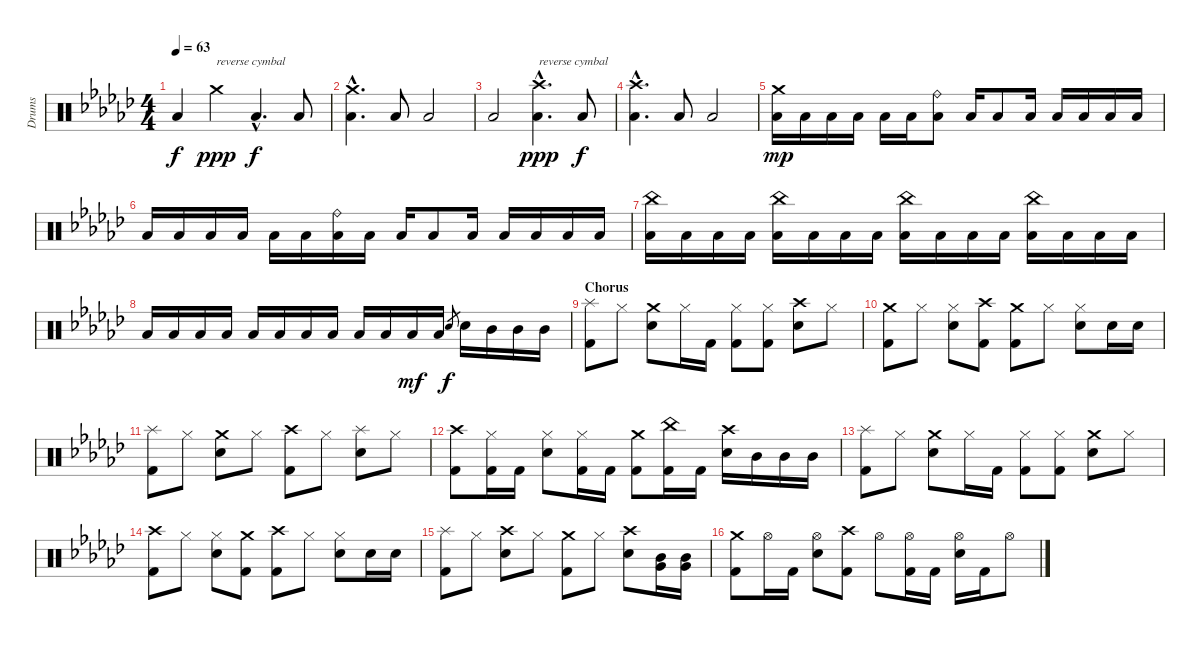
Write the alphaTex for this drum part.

\track ("Drums" "Drums") {instrument percussion}
\staff {score}
\articulation defaults
\ts (4 4)
\tempo 63
\clef neutral
\ks ebminor "Low Floor Tom (hit)".4{dy f} "Crash medium (hit)".4{txt "reverse cymbal" dy ppp} "Low Floor Tom (hit)"{hac}.4{d dy f} "Low Floor Tom (hit)".8
|
("Crash medium (hit)"{hac} "Low Floor Tom (hit)"{hac}).4{d} "Low Floor Tom (hit)".8 "Low Floor Tom (hit)".2 |
"Low Floor Tom (hit)".2 ("Crash high (hit)"{hac} "Low Floor Tom (hit)"{hac}).4{d txt "reverse cymbal" dy ppp} "Low Floor Tom (hit)".8{dy f} |
("Crash high (hit)"{hac} "Low Floor Tom (hit)"{hac}).4{d} "Low Floor Tom (hit)".8 "Low Floor Tom (hit)".2 |
("Crash medium (hit)" "Low Floor Tom (hit)").16{dy mp} "Low Floor Tom (hit)".16 "Low Floor Tom (hit)".16 "Low Floor Tom (hit)".16 "Low Floor Tom (hit)".16 "Low Floor Tom (hit)".16 ("Ride (bell)" "Low Floor Tom (hit)").8 "Low Floor Tom (hit)".16 "Low Floor Tom (hit)".8 "Low Floor Tom (hit)".16 "Low Floor Tom (hit)".16 "Low Floor Tom (hit)".16 "Low Floor Tom (hit)".16 "Low Floor Tom (hit)".16 |
"Low Floor Tom (hit)".16 "Low Floor Tom (hit)".16 "Low Floor Tom (hit)".16 "Low Floor Tom (hit)".16 "Low Floor Tom (hit)".16 "Low Floor Tom (hit)".16 ("Ride (bell)" "Low Floor Tom (hit)").16 "Low Floor Tom (hit)".16 "Low Floor Tom (hit)".16 "Low Floor Tom (hit)".8 "Low Floor Tom (hit)".16 "Low Floor Tom (hit)".16 "Low Floor Tom (hit)".16 "Low Floor Tom (hit)".16 "Low Floor Tom (hit)".16 |
("China (hit)" "Low Floor Tom (hit)").16{balance 0} "Low Floor Tom (hit)".16 "Low Floor Tom (hit)".16{balance 8} "Low Floor Tom (hit)".16 ("China (hit)" "Low Floor Tom (hit)").16{balance 16} "Low Floor Tom (hit)".16 "Low Floor Tom (hit)".16{balance 8} "Low Floor Tom (hit)".16 ("China (hit)" "Low Floor Tom (hit)").16{balance 0} "Low Floor Tom (hit)".16 "Low Floor Tom (hit)".16{balance 8} "Low Floor Tom (hit)".16 ("China (hit)" "Low Floor Tom (hit)").16{balance 16} "Low Floor Tom (hit)".16 "Low Floor Tom (hit)".16{balance 8} "Low Floor Tom (hit)".16 |
"Low Floor Tom (hit)".16 "Low Floor Tom (hit)".16 "Low Floor Tom (hit)".16 "Low Floor Tom (hit)".16 "Low Floor Tom (hit)".16 "Low Floor Tom (hit)".16 "Low Floor Tom (hit)".16 "Low Floor Tom (hit)".16 "Low Floor Tom (hit)".16 "Low Floor Tom (hit)".16 "Low Floor Tom (hit)".16{dy mf} "Low Floor Tom (hit)".16 "Snare (hit) 2".8{gr dy f} "Snare (hit) 2".16 "Mid Tom (hit)".16 "Mid Tom (hit)".16 "Mid Tom (hit)".16 |
\section ("" "Chorus")
("Splash (hit)" "Kick (hit) 2").8 "Hi-Hat (closed)".8 ("Crash medium (hit)" "Snare (hit) 2").8 "Hi-Hat (closed)".16 "Kick (hit) 2".16 ("Hi-Hat (closed)" "Kick (hit) 2").8 ("Hi-Hat (closed)" "Kick (hit) 2").8 ("Crash high (hit)" "Snare (hit) 2").8 "Hi-Hat (closed)".8 |
("Crash medium (hit)" "Kick (hit) 2").8 "Hi-Hat (closed)".8 ("Hi-Hat (closed)" "Snare (hit) 2").8 ("Crash high (hit)" "Kick (hit) 2").8 ("Crash medium (hit)" "Kick (hit) 2").8 "Hi-Hat (closed)".8 ("Hi-Hat (closed)" "Snare (hit) 2").8 "Snare (hit) 2".16 "Snare (hit) 2".16 |
("Splash (hit)" "Kick (hit) 2").8 "Hi-Hat (closed)".8 ("Crash medium (hit)" "Snare (hit) 2").8 "Hi-Hat (closed)".8 ("Crash high (hit)" "Kick (hit) 2").8 "Hi-Hat (closed)".8 ("Splash (hit)" "Snare (hit) 2").8 "Hi-Hat (closed)".8 |
("Crash high (hit)" "Kick (hit) 2").8 ("Hi-Hat (closed)" "Kick (hit) 2").16 "Kick (hit) 2".16 ("Hi-Hat (closed)" "Snare (hit) 2").8 ("Hi-Hat (closed)" "Kick (hit) 2").16 "Kick (hit) 2".16 ("Crash medium (hit)" "Kick (hit) 2").8 ("China (hit)" "Kick (hit) 2").16 "Kick (hit) 2".16 ("Crash high (hit)" "Snare (hit) 2").16 "Mid Tom (hit)".16 "Mid Tom (hit)".16 "Mid Tom (hit)".16 |
("Splash (hit)" "Kick (hit) 2").8 "Hi-Hat (closed)".8 ("Crash medium (hit)" "Snare (hit) 2").8 "Hi-Hat (closed)".16 "Kick (hit) 2".16 ("Hi-Hat (closed)" "Kick (hit) 2").8 ("Hi-Hat (closed)" "Kick (hit) 2").8 ("Crash medium (hit)" "Snare (hit) 2").8 "Hi-Hat (closed)".8 |
("Crash high (hit)" "Kick (hit) 2").8 "Hi-Hat (closed)".8 ("Hi-Hat (closed)" "Snare (hit) 2").8 ("Crash medium (hit)" "Kick (hit) 2").8 ("Crash high (hit)" "Kick (hit) 2").8 "Hi-Hat (closed)".8 ("Hi-Hat (closed)" "Snare (hit) 2").8 "Snare (hit) 2".16 "Snare (hit) 2".16 |
("Splash (hit)" "Kick (hit) 2").8 "Hi-Hat (closed)".8 ("Crash high (hit)" "Snare (hit) 2").8 "Hi-Hat (closed)".8 ("Crash medium (hit)" "Kick (hit) 2").8 "Hi-Hat (closed)".8 ("Crash high (hit)" "Snare (hit) 2").8 ("Mid Tom (hit)" "Very Low Tom (hit)").16 ("Mid Tom (hit)" "Very Low Tom (hit)").16 |
("Crash medium (hit)" "Kick (hit) 2").8 "Hi-Hat (open)".16 "Kick (hit) 2".16 ("Hi-Hat (open)" "Snare (hit) 2").8 ("Crash high (hit)" "Kick (hit) 2").8 "Hi-Hat (open)".8 ("Hi-Hat (open)" "Kick (hit) 2").16 "Kick (hit) 2".16 ("Hi-Hat (open)" "Snare (hit) 2").16 "Kick (hit) 2".16 "Hi-Hat (open)".8
